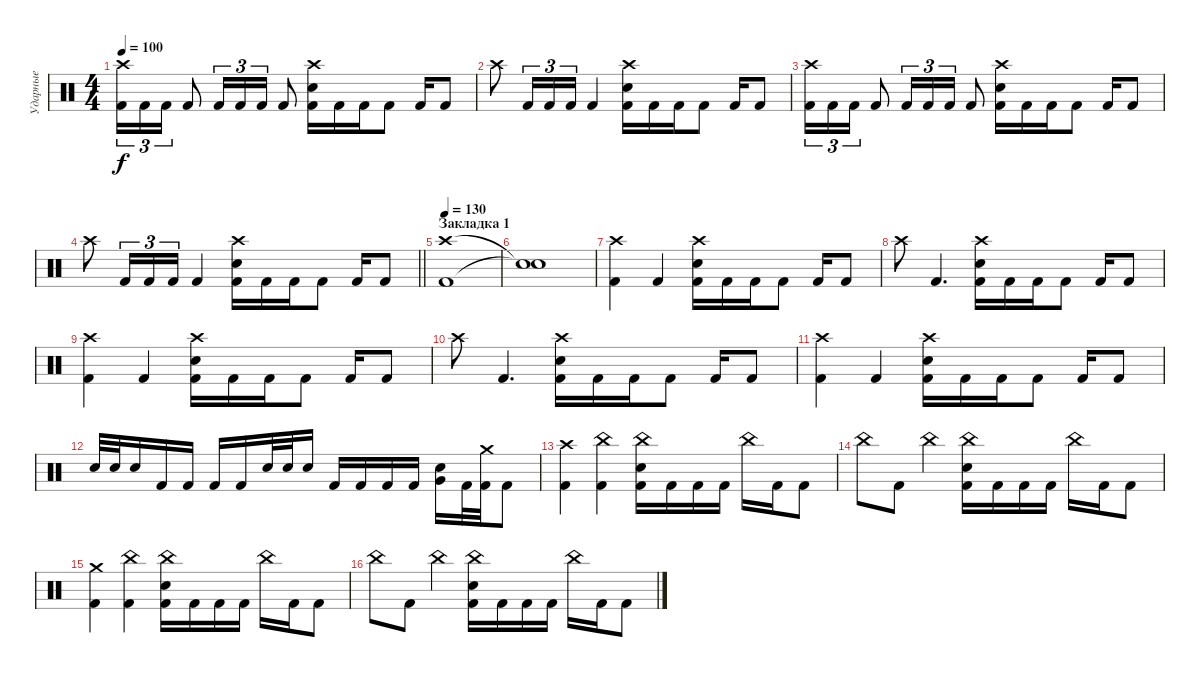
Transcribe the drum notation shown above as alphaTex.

\track ("Ударные" "Ударные") {instrument percussion}
\staff
\articulation defaults
\ts (4 4)
\tempo 100
\clef neutral
\ks c
("Crash high (hit)" "Kick (hit) 2").16{tu (3 2) dy f} "Kick (hit) 2".16{tu (3 2)} "Kick (hit) 2".16{tu (3 2)} "Kick (hit) 2".8 "Kick (hit) 2".16{tu (3 2)} "Kick (hit) 2".16{tu (3 2)} "Kick (hit) 2".16{tu (3 2)} "Kick (hit) 2".8 ("Crash high (hit)" "Electric Snare (hit)" "Kick (hit) 2").16 "Kick (hit) 2".16 "Kick (hit) 2".16 "Kick (hit) 2".8 "Kick (hit) 2".16 "Kick (hit) 2".8 |
"Crash high (hit)".8 "Kick (hit) 2".16{tu (3 2)} "Kick (hit) 2".16{tu (3 2)} "Kick (hit) 2".16{tu (3 2)} "Kick (hit) 2".4 ("Crash high (hit)" "Electric Snare (hit)" "Kick (hit) 2").16 "Kick (hit) 2".16 "Kick (hit) 2".16 "Kick (hit) 2".8 "Kick (hit) 2".16 "Kick (hit) 2".8 |
("Crash high (hit)" "Kick (hit) 2").16{tu (3 2)} "Kick (hit) 2".16{tu (3 2)} "Kick (hit) 2".16{tu (3 2)} "Kick (hit) 2".8 "Kick (hit) 2".16{tu (3 2)} "Kick (hit) 2".16{tu (3 2)} "Kick (hit) 2".16{tu (3 2)} "Kick (hit) 2".8 ("Crash high (hit)" "Electric Snare (hit)" "Kick (hit) 2").16 "Kick (hit) 2".16 "Kick (hit) 2".16 "Kick (hit) 2".8 "Kick (hit) 2".16 "Kick (hit) 2".8 |
\barLineRight lightlight "Crash high (hit)".8 "Kick (hit) 2".16{tu (3 2)} "Kick (hit) 2".16{tu (3 2)} "Kick (hit) 2".16{tu (3 2)} "Kick (hit) 2".4
("Crash high (hit)" "Electric Snare (hit)" "Kick (hit) 2").16 "Kick (hit) 2".16 "Kick (hit) 2".16 "Kick (hit) 2".8 "Kick (hit) 2".16 "Kick (hit) 2".8 |
\section ("" "Закладка 1")
\tempo 130
("Crash high (hit)" "Kick (hit) 2").1 |
("Snare (hit)"{t} "Snare (hit)"{t}).1 |
("Crash high (hit)" "Kick (hit) 2").4 "Kick (hit) 2".4 ("Crash high (hit)" "Electric Snare (hit)" "Kick (hit) 2").16 "Kick (hit) 2".16 "Kick (hit) 2".16 "Kick (hit) 2".8 "Kick (hit) 2".16 "Kick (hit) 2".8 |
"Crash high (hit)".8 "Kick (hit) 2".4{d} ("Crash high (hit)" "Electric Snare (hit)" "Kick (hit) 2").16 "Kick (hit) 2".16 "Kick (hit) 2".16 "Kick (hit) 2".8 "Kick (hit) 2".16 "Kick (hit) 2".8 |
("Crash high (hit)" "Kick (hit) 2").4 "Kick (hit) 2".4 ("Crash high (hit)" "Electric Snare (hit)" "Kick (hit) 2").16 "Kick (hit) 2".16 "Kick (hit) 2".16 "Kick (hit) 2".8 "Kick (hit) 2".16 "Kick (hit) 2".8 |
"Crash high (hit)".8 "Kick (hit) 2".4{d} ("Crash high (hit)" "Electric Snare (hit)" "Kick (hit) 2").16 "Kick (hit) 2".16 "Kick (hit) 2".16 "Kick (hit) 2".8 "Kick (hit) 2".16 "Kick (hit) 2".8 |
("Crash high (hit)" "Kick (hit) 2").4 "Kick (hit) 2".4 ("Crash high (hit)" "Electric Snare (hit)" "Kick (hit) 2").16 "Kick (hit) 2".16 "Kick (hit) 2".16 "Kick (hit) 2".8 "Kick (hit) 2".16 "Kick (hit) 2".8 |
"Electric Snare (hit)".32 "Electric Snare (hit)".32 "Electric Snare (hit)".16 "Kick (hit) 2".16 "Kick (hit) 2".16 "Kick (hit) 2".16 "Kick (hit) 2".16 "Electric Snare (hit)".32 "Electric Snare (hit)".32 "Electric Snare (hit)".16 "Kick (hit) 2".16 "Kick (hit) 2".16 "Kick (hit) 2".16 "Kick (hit) 2".16 ("Electric Snare (hit)" "Very Low Tom (hit)").16 "Kick (hit) 2".32 ("Crash medium (hit)" "Kick (hit) 2").32 "Kick (hit) 2".8 |
("Crash high (hit)" "Kick (hit) 2").4 ("China (hit)" "Kick (hit) 2").4 ("China (hit)" "Electric Snare (hit)" "Kick (hit) 2").16 "Kick (hit) 2".16 "Kick (hit) 2".16 "Kick (hit) 2".16 "China (hit)".16 "Kick (hit) 2".16 "Kick (hit) 2".8 |
"China (hit)".8 "Kick (hit) 2".8 "China (hit)".4 ("China (hit)" "Electric Snare (hit)" "Kick (hit) 2").16 "Kick (hit) 2".16 "Kick (hit) 2".16 "Kick (hit) 2".16 "China (hit)".16 "Kick (hit) 2".16 "Kick (hit) 2".8 |
("Crash medium (hit)" "Kick (hit) 2").4 ("China (hit)" "Kick (hit) 2").4 ("China (hit)" "Electric Snare (hit)" "Kick (hit) 2").16 "Kick (hit) 2".16 "Kick (hit) 2".16 "Kick (hit) 2".16 "China (hit)".16 "Kick (hit) 2".16 "Kick (hit) 2".8 |
"China (hit)".8 "Kick (hit) 2".8 "China (hit)".4 ("China (hit)" "Electric Snare (hit)" "Kick (hit) 2").16 "Kick (hit) 2".16 "Kick (hit) 2".16 "Kick (hit) 2".16 "China (hit)".16 "Kick (hit) 2".16 "Kick (hit) 2".8
